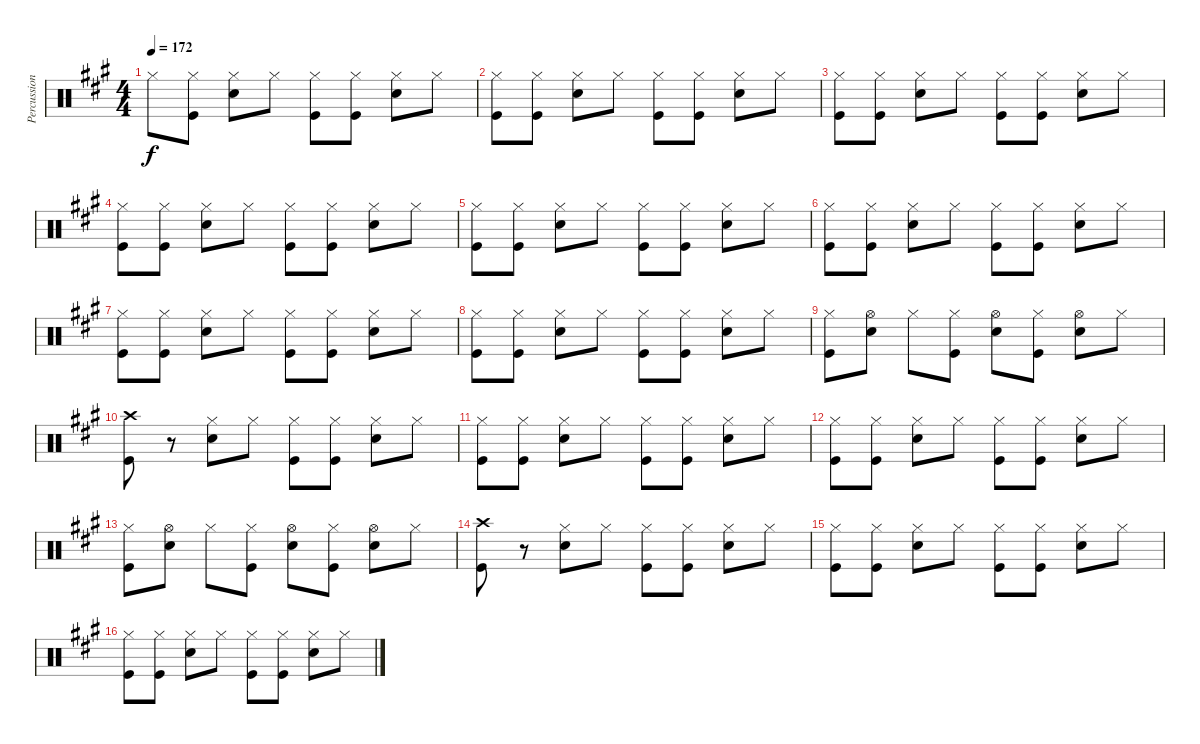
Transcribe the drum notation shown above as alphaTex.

\track ("Percussion" "Percussion") {instrument percussion}
\staff {score}
\articulation defaults
\ts (4 4)
\tempo 172
\clef neutral
\ks a "Hi-Hat (closed)".8{dy f}
("Hi-Hat (closed)" "Kick (hit)").8 ("Hi-Hat (closed)" "Snare (hit) 2").8 "Hi-Hat (closed)".8 ("Hi-Hat (closed)" "Kick (hit)").8 ("Hi-Hat (closed)" "Kick (hit)").8 ("Hi-Hat (closed)" "Snare (hit) 2").8 "Hi-Hat (closed)".8 |
("Hi-Hat (closed)" "Kick (hit)").8 ("Hi-Hat (closed)" "Kick (hit)").8 ("Hi-Hat (closed)" "Snare (hit) 2").8 "Hi-Hat (closed)".8 ("Hi-Hat (closed)" "Kick (hit)").8 ("Hi-Hat (closed)" "Kick (hit)").8 ("Hi-Hat (closed)" "Snare (hit) 2").8 "Hi-Hat (closed)".8 |
("Hi-Hat (closed)" "Kick (hit)").8 ("Hi-Hat (closed)" "Kick (hit)").8 ("Hi-Hat (closed)" "Snare (hit) 2").8 "Hi-Hat (closed)".8 ("Hi-Hat (closed)" "Kick (hit)").8 ("Hi-Hat (closed)" "Kick (hit)").8 ("Hi-Hat (closed)" "Snare (hit) 2").8 "Hi-Hat (closed)".8 |
("Hi-Hat (closed)" "Kick (hit)").8 ("Hi-Hat (closed)" "Kick (hit)").8 ("Hi-Hat (closed)" "Snare (hit) 2").8 "Hi-Hat (closed)".8 ("Hi-Hat (closed)" "Kick (hit)").8 ("Hi-Hat (closed)" "Kick (hit)").8 ("Hi-Hat (closed)" "Snare (hit) 2").8 "Hi-Hat (closed)".8 |
("Hi-Hat (closed)" "Kick (hit)").8 ("Hi-Hat (closed)" "Kick (hit)").8 ("Hi-Hat (closed)" "Snare (hit) 2").8 "Hi-Hat (closed)".8 ("Hi-Hat (closed)" "Kick (hit)").8 ("Hi-Hat (closed)" "Kick (hit)").8 ("Hi-Hat (closed)" "Snare (hit) 2").8 "Hi-Hat (closed)".8 |
("Hi-Hat (closed)" "Kick (hit)").8 ("Hi-Hat (closed)" "Kick (hit)").8 ("Hi-Hat (closed)" "Snare (hit) 2").8 "Hi-Hat (closed)".8 ("Hi-Hat (closed)" "Kick (hit)").8 ("Hi-Hat (closed)" "Kick (hit)").8 ("Hi-Hat (closed)" "Snare (hit) 2").8 "Hi-Hat (closed)".8 |
("Hi-Hat (closed)" "Kick (hit)").8 ("Hi-Hat (closed)" "Kick (hit)").8 ("Hi-Hat (closed)" "Snare (hit) 2").8 "Hi-Hat (closed)".8 ("Hi-Hat (closed)" "Kick (hit)").8 ("Hi-Hat (closed)" "Kick (hit)").8 ("Hi-Hat (closed)" "Snare (hit) 2").8 "Hi-Hat (closed)".8 |
("Hi-Hat (closed)" "Kick (hit)").8 ("Hi-Hat (closed)" "Kick (hit)").8 ("Hi-Hat (closed)" "Snare (hit) 2").8 "Hi-Hat (closed)".8 ("Hi-Hat (closed)" "Kick (hit)").8 ("Hi-Hat (closed)" "Kick (hit)").8 ("Hi-Hat (closed)" "Snare (hit) 2").8 "Hi-Hat (closed)".8 |
("Hi-Hat (closed)" "Kick (hit)").8 ("Hi-Hat (open)" "Snare (hit) 2").8 "Hi-Hat (closed)".8 ("Hi-Hat (closed)" "Kick (hit)").8 ("Hi-Hat (open)" "Snare (hit) 2").8 ("Hi-Hat (closed)" "Kick (hit)").8 ("Hi-Hat (open)" "Snare (hit) 2").8 "Hi-Hat (closed)".8 |
("Crash high (hit)" "Kick (hit)").8 r.8 ("Hi-Hat (closed)" "Snare (hit) 2").8 "Hi-Hat (closed)".8 ("Hi-Hat (closed)" "Kick (hit)").8 ("Hi-Hat (closed)" "Kick (hit)").8 ("Hi-Hat (closed)" "Snare (hit) 2").8 "Hi-Hat (closed)".8 |
("Hi-Hat (closed)" "Kick (hit)").8 ("Hi-Hat (closed)" "Kick (hit)").8 ("Hi-Hat (closed)" "Snare (hit) 2").8 "Hi-Hat (closed)".8 ("Hi-Hat (closed)" "Kick (hit)").8 ("Hi-Hat (closed)" "Kick (hit)").8 ("Hi-Hat (closed)" "Snare (hit) 2").8 "Hi-Hat (closed)".8 |
("Hi-Hat (closed)" "Kick (hit)").8 ("Hi-Hat (closed)" "Kick (hit)").8 ("Hi-Hat (closed)" "Snare (hit) 2").8 "Hi-Hat (closed)".8 ("Hi-Hat (closed)" "Kick (hit)").8 ("Hi-Hat (closed)" "Kick (hit)").8 ("Hi-Hat (closed)" "Snare (hit) 2").8 "Hi-Hat (closed)".8 |
("Hi-Hat (closed)" "Kick (hit)").8 ("Hi-Hat (open)" "Snare (hit) 2").8 "Hi-Hat (closed)".8 ("Hi-Hat (closed)" "Kick (hit)").8 ("Hi-Hat (open)" "Snare (hit) 2").8 ("Hi-Hat (closed)" "Kick (hit)").8 ("Hi-Hat (open)" "Snare (hit) 2").8 "Hi-Hat (closed)".8 |
("Crash high (hit)" "Kick (hit)").8 r.8 ("Hi-Hat (closed)" "Snare (hit) 2").8 "Hi-Hat (closed)".8 ("Hi-Hat (closed)" "Kick (hit)").8 ("Hi-Hat (closed)" "Kick (hit)").8 ("Hi-Hat (closed)" "Snare (hit) 2").8 "Hi-Hat (closed)".8 |
("Hi-Hat (closed)" "Kick (hit)").8 ("Hi-Hat (closed)" "Kick (hit)").8 ("Hi-Hat (closed)" "Snare (hit) 2").8 "Hi-Hat (closed)".8 ("Hi-Hat (closed)" "Kick (hit)").8 ("Hi-Hat (closed)" "Kick (hit)").8 ("Hi-Hat (closed)" "Snare (hit) 2").8 "Hi-Hat (closed)".8 |
("Hi-Hat (closed)" "Kick (hit)").8 ("Hi-Hat (closed)" "Kick (hit)").8 ("Hi-Hat (closed)" "Snare (hit) 2").8 "Hi-Hat (closed)".8 ("Hi-Hat (closed)" "Kick (hit)").8 ("Hi-Hat (closed)" "Kick (hit)").8 ("Hi-Hat (closed)" "Snare (hit) 2").8 "Hi-Hat (closed)".8
